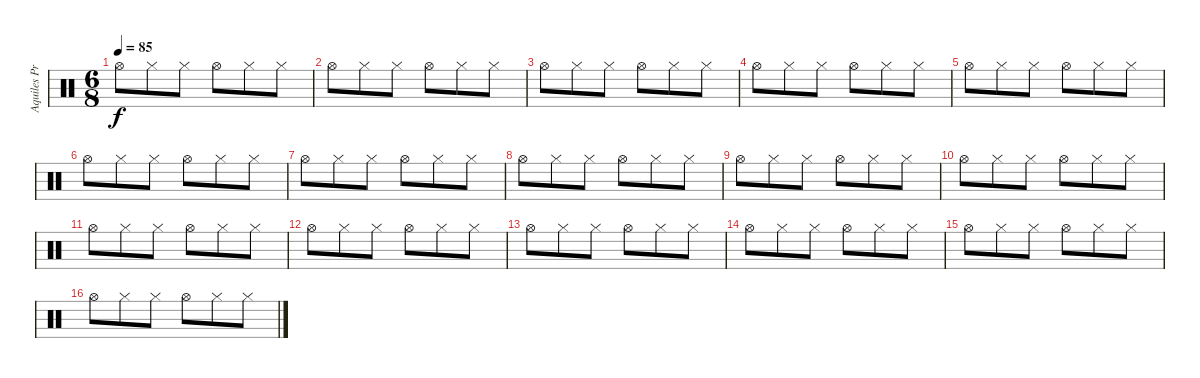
\track ("Aquiles Priester" "Aquiles Pr") {instrument percussion}
\staff {score}
\articulation defaults
\ts (6 8)
\tempo 85
\clef neutral
\ks c "Hi-Hat (open)".8{dy f volume 9} "Hi-Hat (closed)".8 "Hi-Hat (closed)".8 "Hi-Hat (open)".8 "Hi-Hat (closed)".8 "Hi-Hat (closed)".8
|
"Hi-Hat (open)".8 "Hi-Hat (closed)".8 "Hi-Hat (closed)".8 "Hi-Hat (open)".8 "Hi-Hat (closed)".8 "Hi-Hat (closed)".8 |
"Hi-Hat (open)".8 "Hi-Hat (closed)".8 "Hi-Hat (closed)".8 "Hi-Hat (open)".8 "Hi-Hat (closed)".8 "Hi-Hat (closed)".8 |
"Hi-Hat (open)".8 "Hi-Hat (closed)".8 "Hi-Hat (closed)".8 "Hi-Hat (open)".8 "Hi-Hat (closed)".8 "Hi-Hat (closed)".8 |
"Hi-Hat (open)".8 "Hi-Hat (closed)".8 "Hi-Hat (closed)".8 "Hi-Hat (open)".8 "Hi-Hat (closed)".8 "Hi-Hat (closed)".8 |
"Hi-Hat (open)".8 "Hi-Hat (closed)".8 "Hi-Hat (closed)".8 "Hi-Hat (open)".8 "Hi-Hat (closed)".8 "Hi-Hat (closed)".8 |
"Hi-Hat (open)".8 "Hi-Hat (closed)".8 "Hi-Hat (closed)".8 "Hi-Hat (open)".8 "Hi-Hat (closed)".8 "Hi-Hat (closed)".8 |
"Hi-Hat (open)".8 "Hi-Hat (closed)".8 "Hi-Hat (closed)".8 "Hi-Hat (open)".8 "Hi-Hat (closed)".8 "Hi-Hat (closed)".8 |
"Hi-Hat (open)".8 "Hi-Hat (closed)".8 "Hi-Hat (closed)".8 "Hi-Hat (open)".8 "Hi-Hat (closed)".8 "Hi-Hat (closed)".8 |
"Hi-Hat (open)".8 "Hi-Hat (closed)".8 "Hi-Hat (closed)".8 "Hi-Hat (open)".8 "Hi-Hat (closed)".8 "Hi-Hat (closed)".8 |
"Hi-Hat (open)".8 "Hi-Hat (closed)".8 "Hi-Hat (closed)".8 "Hi-Hat (open)".8 "Hi-Hat (closed)".8 "Hi-Hat (closed)".8 |
"Hi-Hat (open)".8 "Hi-Hat (closed)".8 "Hi-Hat (closed)".8 "Hi-Hat (open)".8 "Hi-Hat (closed)".8 "Hi-Hat (closed)".8 |
"Hi-Hat (open)".8 "Hi-Hat (closed)".8 "Hi-Hat (closed)".8 "Hi-Hat (open)".8 "Hi-Hat (closed)".8 "Hi-Hat (closed)".8 |
"Hi-Hat (open)".8 "Hi-Hat (closed)".8 "Hi-Hat (closed)".8 "Hi-Hat (open)".8 "Hi-Hat (closed)".8 "Hi-Hat (closed)".8 |
"Hi-Hat (open)".8 "Hi-Hat (closed)".8 "Hi-Hat (closed)".8 "Hi-Hat (open)".8 "Hi-Hat (closed)".8 "Hi-Hat (closed)".8 |
"Hi-Hat (open)".8 "Hi-Hat (closed)".8 "Hi-Hat (closed)".8 "Hi-Hat (open)".8 "Hi-Hat (closed)".8 "Hi-Hat (closed)".8
